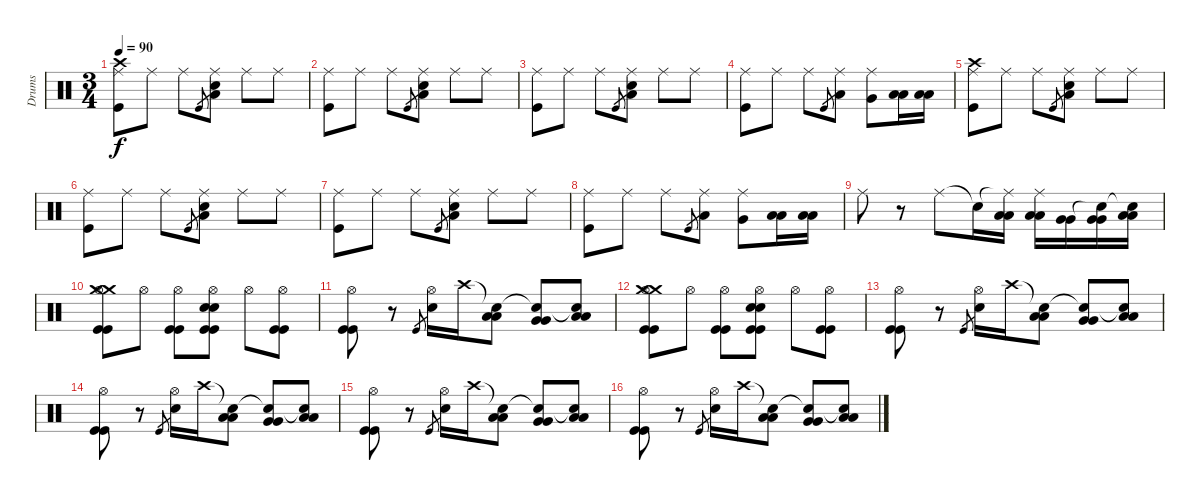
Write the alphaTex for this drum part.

\track ("Drums" "Drums") {instrument percussion}
\staff {score}
\articulation defaults
\ts (3 4)
\tempo 90
\clef neutral
\ks c
("Crash high (hit)" "Ride (middle)" "Kick (hit)").8{dy f} "Ride (middle)".8 "Ride (middle)".8 "Kick (hit)".8{gr} ("Electric Snare (hit)" "Ride (middle)" "Low Floor Tom (hit)").8 "Ride (middle)".8 "Ride (middle)".8 |
("Ride (middle)" "Kick (hit)").8 "Ride (middle)".8 "Ride (middle)".8 "Kick (hit)".8{gr} ("Electric Snare (hit)" "Ride (middle)" "Low Floor Tom (hit)").8 "Ride (middle)".8 "Ride (middle)".8 |
("Ride (middle)" "Kick (hit)").8 "Ride (middle)".8 "Ride (middle)".8 "Kick (hit)".8{gr} ("Electric Snare (hit)" "Ride (middle)" "Low Floor Tom (hit)").8 "Ride (middle)".8 "Ride (middle)".8 |
("Ride (middle)" "Kick (hit)").8 "Ride (middle)".8 "Ride (middle)".8 "Kick (hit)".8{gr} ("Ride (middle)" "Low Tom (hit)").8 ("Ride (middle)" "Very Low Tom (hit)").8 ("Low Floor Tom (hit)" "Low Floor Tom (hit)").16 ("Low Floor Tom (hit)" "Low Floor Tom (hit)").16 |
("Crash high (hit)" "Ride (middle)" "Kick (hit)").8 "Ride (middle)".8 "Ride (middle)".8 "Kick (hit)".8{gr} ("Electric Snare (hit)" "Ride (middle)" "Low Floor Tom (hit)").8 "Ride (middle)".8 "Ride (middle)".8 |
("Ride (middle)" "Kick (hit)").8 "Ride (middle)".8 "Ride (middle)".8 "Kick (hit)".8{gr} ("Electric Snare (hit)" "Ride (middle)" "Low Floor Tom (hit)").8 "Ride (middle)".8 "Ride (middle)".8 |
("Ride (middle)" "Kick (hit)").8 "Ride (middle)".8 "Ride (middle)".8 "Kick (hit)".8{gr} ("Electric Snare (hit)" "Ride (middle)" "Low Floor Tom (hit)").8 "Ride (middle)".8 "Ride (middle)".8 |
("Ride (middle)" "Kick (hit)").8 "Ride (middle)".8 "Ride (middle)".8 "Kick (hit)".8{gr} ("Ride (middle)" "Low Tom (hit)").8 ("Ride (middle)" "Very Low Tom (hit)").8 ("Low Floor Tom (hit)" "Low Floor Tom (hit)").16 ("Low Floor Tom (hit)" "Low Floor Tom (hit)").16 |
"Ride (middle)".8 r.8 "Ride (middle)".8 "Snare (hit)"{t}.16 ("Ride (middle)"{t} "Low Tom (hit)" "Low Tom (hit)").16 ("Ride (middle)" "Low Tom (hit)" "Low Tom (hit)").16 ("Very Low Tom (hit)" "Very Low Tom (hit)").16 ("Snare (hit)"{t} "Very Low Tom (hit)" "Very Low Tom (hit)").16 ("Snare (hit)"{t} "Low Floor Tom (hit)" "Low Floor Tom (hit)").16 |
("Crash medium (hit)" "Hi-Hat (open)" "Crash medium (hit)" "Kick (hit)" "Kick (hit)").8 "Hi-Hat (open)".8 ("Hi-Hat (open)" "Kick (hit)" "Kick (hit)").8 ("Hi-Hat (open)" "Electric Snare (hit)" "Electric Snare (hit)" "Kick (hit)" "Kick (hit)").8 "Hi-Hat (open)".8 ("Hi-Hat (open)" "Kick (hit)" "Kick (hit)").8 |
("Hi-Hat (open)" "Kick (hit)" "Kick (hit)").8 r.8 "Kick (hit)".8{gr} ("Hi-Hat (open)" "Electric Snare (hit)").16 "Crash high (hit)".16 ("Snare (hit)"{t} "Low Tom (hit)" "Low Tom (hit)").8 ("Snare (hit)"{t} "Very Low Tom (hit)" "Very Low Tom (hit)").8 ("Snare (hit)"{t} "Low Floor Tom (hit)" "Low Floor Tom (hit)").8 |
("Crash medium (hit)" "Hi-Hat (open)" "Crash medium (hit)" "Kick (hit)" "Kick (hit)").8 "Hi-Hat (open)".8 ("Hi-Hat (open)" "Kick (hit)" "Kick (hit)").8 ("Hi-Hat (open)" "Snare (hit)" "Electric Snare (hit)" "Kick (hit)" "Kick (hit)").8 "Hi-Hat (open)".8 ("Hi-Hat (open)" "Kick (hit)" "Kick (hit)").8 |
("Hi-Hat (open)" "Kick (hit)" "Kick (hit)").8 r.8 "Kick (hit)".8{gr} ("Hi-Hat (open)" "Electric Snare (hit)").16 "Crash high (hit)".16 ("Snare (hit)"{t} "Low Tom (hit)" "Low Tom (hit)").8 ("Snare (hit)"{t} "Very Low Tom (hit)" "Very Low Tom (hit)").8 ("Snare (hit)"{t} "Low Floor Tom (hit)" "Low Floor Tom (hit)").8 |
("Hi-Hat (open)" "Kick (hit)" "Kick (hit)").8 r.8 "Kick (hit)".8{gr} ("Hi-Hat (open)" "Electric Snare (hit)").16 "Crash high (hit)".16 ("Snare (hit)"{t} "Low Tom (hit)" "Low Tom (hit)").8 ("Snare (hit)"{t} "Very Low Tom (hit)" "Very Low Tom (hit)").8 ("Snare (hit)"{t} "Low Floor Tom (hit)" "Low Floor Tom (hit)").8 |
("Hi-Hat (open)" "Kick (hit)" "Kick (hit)").8 r.8 "Kick (hit)".8{gr} ("Hi-Hat (open)" "Electric Snare (hit)").16 "Crash high (hit)".16 ("Snare (hit)"{t} "Low Tom (hit)" "Low Tom (hit)").8 ("Snare (hit)"{t} "Very Low Tom (hit)" "Very Low Tom (hit)").8 ("Snare (hit)"{t} "Low Floor Tom (hit)" "Low Floor Tom (hit)").8 |
("Hi-Hat (open)" "Kick (hit)" "Kick (hit)").8 r.8 "Kick (hit)".8{gr} ("Hi-Hat (open)" "Electric Snare (hit)").16 "Crash high (hit)".16 ("Snare (hit)"{t} "Low Tom (hit)" "Low Tom (hit)").8 ("Snare (hit)"{t} "Very Low Tom (hit)" "Very Low Tom (hit)").8 ("Snare (hit)"{t} "Low Floor Tom (hit)" "Low Floor Tom (hit)").8
